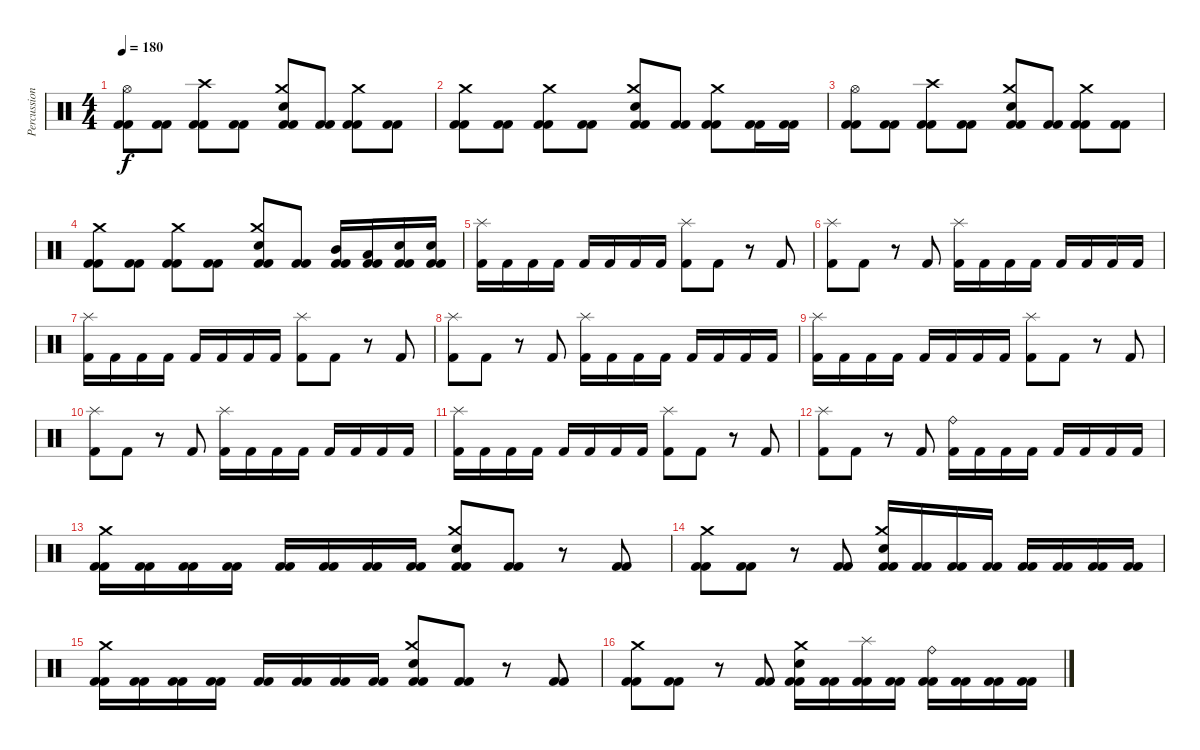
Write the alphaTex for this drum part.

\track ("Percussion" "Percussion") {instrument percussion}
\staff {score}
\articulation defaults
\ts (4 4)
\tempo 180
\clef neutral
\ks c
("Hi-Hat (open)" "Kick (hit) 2" "Kick (hit) 2").8{dy f} ("Kick (hit) 2" "Kick (hit) 2").8 ("Crash high (hit)" "Kick (hit) 2" "Kick (hit) 2").8 ("Kick (hit) 2" "Kick (hit) 2").8 ("Crash medium (hit)" "Electric Snare (hit)" "Kick (hit) 2" "Kick (hit) 2").8 ("Kick (hit) 2" "Kick (hit) 2").8 ("Crash medium (hit)" "Kick (hit) 2" "Kick (hit) 2").8 ("Kick (hit) 2" "Kick (hit) 2").8 |
("Crash medium (hit)" "Kick (hit) 2" "Kick (hit) 2").8 ("Kick (hit) 2" "Kick (hit) 2").8 ("Crash medium (hit)" "Kick (hit) 2" "Kick (hit) 2").8 ("Kick (hit) 2" "Kick (hit) 2").8 ("Crash medium (hit)" "Electric Snare (hit)" "Kick (hit) 2" "Kick (hit) 2").8 ("Kick (hit) 2" "Kick (hit) 2").8 ("Crash medium (hit)" "Kick (hit) 2" "Kick (hit) 2").8 ("Kick (hit) 2" "Kick (hit) 2").16 ("Kick (hit) 2" "Kick (hit) 2").16 |
("Hi-Hat (open)" "Kick (hit) 2" "Kick (hit) 2").8 ("Kick (hit) 2" "Kick (hit) 2").8 ("Crash high (hit)" "Kick (hit) 2" "Kick (hit) 2").8 ("Kick (hit) 2" "Kick (hit) 2").8 ("Crash medium (hit)" "Electric Snare (hit)" "Kick (hit) 2" "Kick (hit) 2").8 ("Kick (hit) 2" "Kick (hit) 2").8 ("Crash medium (hit)" "Kick (hit) 2" "Kick (hit) 2").8 ("Kick (hit) 2" "Kick (hit) 2").8 |
("Crash medium (hit)" "Kick (hit) 2" "Kick (hit) 2").8 ("Kick (hit) 2" "Kick (hit) 2").8 ("Crash medium (hit)" "Kick (hit) 2" "Kick (hit) 2").8 ("Kick (hit) 2" "Kick (hit) 2").8 ("Crash medium (hit)" "Electric Snare (hit)" "Kick (hit) 2" "Kick (hit) 2").8 ("Kick (hit) 2" "Kick (hit) 2").8 ("Mid Tom (hit)" "Kick (hit) 2" "Kick (hit) 2").16 ("Low Tom (hit)" "Kick (hit) 2" "Kick (hit) 2").16 ("Electric Snare (hit)" "Kick (hit) 2" "Kick (hit) 2").16 ("Electric Snare (hit)" "Kick (hit) 2" "Kick (hit) 2").16 |
("Splash (hit)" "Kick (hit) 2").16 "Kick (hit) 2".16 "Kick (hit) 2".16 "Kick (hit) 2".16 "Kick (hit) 2".16 "Kick (hit) 2".16 "Kick (hit) 2".16 "Kick (hit) 2".16 ("Splash (hit)" "Kick (hit) 2").8 "Kick (hit) 2".8 r.8 "Kick (hit) 2".8 |
("Splash (hit)" "Kick (hit) 2").8 "Kick (hit) 2".8 r.8 "Kick (hit) 2".8 ("Splash (hit)" "Kick (hit) 2").16 "Kick (hit) 2".16 "Kick (hit) 2".16 "Kick (hit) 2".16 "Kick (hit) 2".16 "Kick (hit) 2".16 "Kick (hit) 2".16 "Kick (hit) 2".16 |
("Splash (hit)" "Kick (hit) 2").16 "Kick (hit) 2".16 "Kick (hit) 2".16 "Kick (hit) 2".16 "Kick (hit) 2".16 "Kick (hit) 2".16 "Kick (hit) 2".16 "Kick (hit) 2".16 ("Splash (hit)" "Kick (hit) 2").8 "Kick (hit) 2".8 r.8 "Kick (hit) 2".8 |
("Splash (hit)" "Kick (hit) 2").8 "Kick (hit) 2".8 r.8 "Kick (hit) 2".8 ("Splash (hit)" "Kick (hit) 2").16 "Kick (hit) 2".16 "Kick (hit) 2".16 "Kick (hit) 2".16 "Kick (hit) 2".16 "Kick (hit) 2".16 "Kick (hit) 2".16 "Kick (hit) 2".16 |
("Splash (hit)" "Kick (hit) 2").16 "Kick (hit) 2".16 "Kick (hit) 2".16 "Kick (hit) 2".16 "Kick (hit) 2".16 "Kick (hit) 2".16 "Kick (hit) 2".16 "Kick (hit) 2".16 ("Splash (hit)" "Kick (hit) 2").8 "Kick (hit) 2".8 r.8 "Kick (hit) 2".8 |
("Splash (hit)" "Kick (hit) 2").8 "Kick (hit) 2".8 r.8 "Kick (hit) 2".8 ("Splash (hit)" "Kick (hit) 2").16 "Kick (hit) 2".16 "Kick (hit) 2".16 "Kick (hit) 2".16 "Kick (hit) 2".16 "Kick (hit) 2".16 "Kick (hit) 2".16 "Kick (hit) 2".16 |
("Splash (hit)" "Kick (hit) 2").16 "Kick (hit) 2".16 "Kick (hit) 2".16 "Kick (hit) 2".16 "Kick (hit) 2".16 "Kick (hit) 2".16 "Kick (hit) 2".16 "Kick (hit) 2".16 ("Splash (hit)" "Kick (hit) 2").8 "Kick (hit) 2".8 r.8 "Kick (hit) 2".8 |
("Splash (hit)" "Kick (hit) 2").8 "Kick (hit) 2".8 r.8 "Kick (hit) 2".8 ("Ride (bell)" "Kick (hit) 2").16 "Kick (hit) 2".16 "Kick (hit) 2".16 "Kick (hit) 2".16 "Kick (hit) 2".16 "Kick (hit) 2".16 "Kick (hit) 2".16 "Kick (hit) 2".16 |
("Crash medium (hit)" "Kick (hit) 2" "Kick (hit) 2").16 ("Kick (hit) 2" "Kick (hit) 2").16 ("Kick (hit) 2" "Kick (hit) 2").16 ("Kick (hit) 2" "Kick (hit) 2").16 ("Kick (hit) 2" "Kick (hit) 2").16 ("Kick (hit) 2" "Kick (hit) 2").16 ("Kick (hit) 2" "Kick (hit) 2").16 ("Kick (hit) 2" "Kick (hit) 2").16 ("Crash medium (hit)" "Electric Snare (hit)" "Kick (hit) 2" "Kick (hit) 2").8 ("Kick (hit) 2" "Kick (hit) 2").8 r.8 ("Kick (hit) 2" "Kick (hit) 2").8 |
("Crash medium (hit)" "Kick (hit) 2" "Kick (hit) 2").8 ("Kick (hit) 2" "Kick (hit) 2").8 r.8 ("Kick (hit) 2" "Kick (hit) 2").8 ("Crash medium (hit)" "Electric Snare (hit)" "Kick (hit) 2" "Kick (hit) 2").16 ("Kick (hit) 2" "Kick (hit) 2").16 ("Kick (hit) 2" "Kick (hit) 2").16 ("Kick (hit) 2" "Kick (hit) 2").16 ("Kick (hit) 2" "Kick (hit) 2").16 ("Kick (hit) 2" "Kick (hit) 2").16 ("Kick (hit) 2" "Kick (hit) 2").16 ("Kick (hit) 2" "Kick (hit) 2").16 |
("Crash medium (hit)" "Kick (hit) 2" "Kick (hit) 2").16 ("Kick (hit) 2" "Kick (hit) 2").16 ("Kick (hit) 2" "Kick (hit) 2").16 ("Kick (hit) 2" "Kick (hit) 2").16 ("Kick (hit) 2" "Kick (hit) 2").16 ("Kick (hit) 2" "Kick (hit) 2").16 ("Kick (hit) 2" "Kick (hit) 2").16 ("Kick (hit) 2" "Kick (hit) 2").16 ("Crash medium (hit)" "Electric Snare (hit)" "Kick (hit) 2" "Kick (hit) 2").8 ("Kick (hit) 2" "Kick (hit) 2").8 r.8 ("Kick (hit) 2" "Kick (hit) 2").8 |
("Crash medium (hit)" "Kick (hit) 2" "Kick (hit) 2").8 ("Kick (hit) 2" "Kick (hit) 2").8 r.8 ("Kick (hit) 2" "Kick (hit) 2").8 ("Crash medium (hit)" "Electric Snare (hit)" "Kick (hit) 2" "Kick (hit) 2").16 ("Kick (hit) 2" "Kick (hit) 2").16 ("Splash (hit)" "Kick (hit) 2" "Kick (hit) 2").16 ("Kick (hit) 2" "Kick (hit) 2").16 ("Ride (bell)" "Kick (hit) 2" "Kick (hit) 2").16 ("Kick (hit) 2" "Kick (hit) 2").16 ("Kick (hit) 2" "Kick (hit) 2").16 ("Kick (hit) 2" "Kick (hit) 2").16
